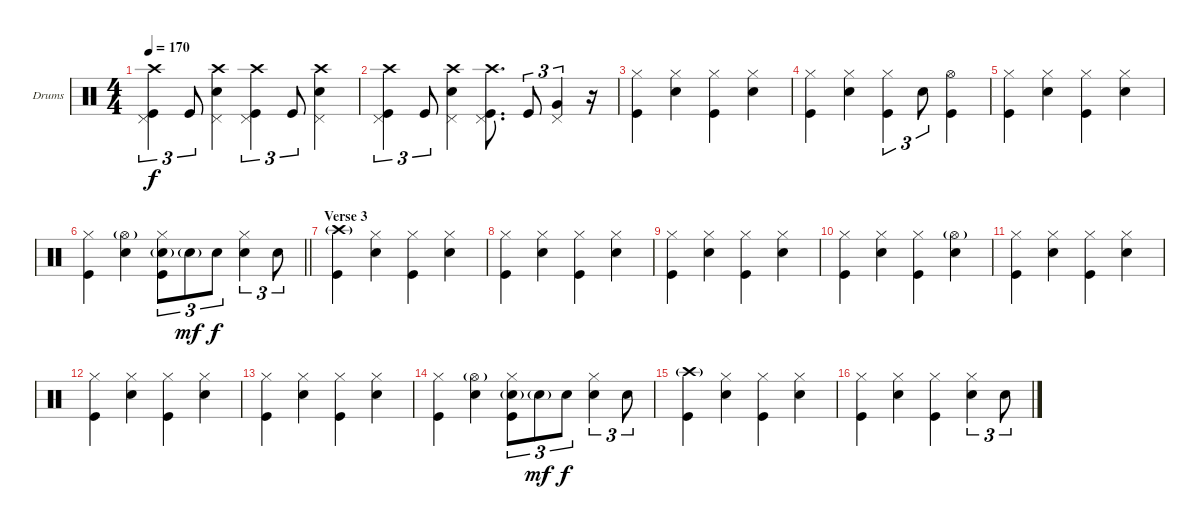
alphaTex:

\bracketExtendMode groupsimilarinstruments
\firstSystemTrackNameOrientation horizontal
\otherSystemsTrackNameOrientation horizontal
\track ("Dave Grohl [Drumms]" "Drums") {instrument percussion}
\staff {score}
\articulation defaults
\ts (4 4)
\tempo 170
\clef neutral
\ks c
("Crash high (hit)" "Pedal Hi-Hat (hit)" "Kick (hit)").4{tu (3 2) dy f} "Kick (hit)".8{tu (3 2)} ("Crash high (hit)" "Pedal Hi-Hat (hit)" "Snare (hit) 2").4 ("Crash high (hit)" "Pedal Hi-Hat (hit)" "Kick (hit)").4{tu (3 2)} "Kick (hit)".8{tu (3 2)} ("Crash high (hit)" "Pedal Hi-Hat (hit)" "Snare (hit) 2").4 |
("Crash high (hit)" "Pedal Hi-Hat (hit)" "Kick (hit)").4{tu (3 2)} "Kick (hit)".8{tu (3 2)} ("Crash high (hit)" "Pedal Hi-Hat (hit)" "Snare (hit) 2").4 ("Crash high (hit)" "Pedal Hi-Hat (hit)" "Kick (hit)").8{d} "Kick (hit)".8{tu (3 2)} ("Pedal Hi-Hat (hit)" "Very Low Tom (hit)").4{tu (3 2)} r.16 |
("Hi-Hat (closed)" "Kick (hit)").4 ("Hi-Hat (closed)" "Snare (hit) 2").4 ("Hi-Hat (closed)" "Kick (hit)").4 ("Hi-Hat (closed)" "Snare (hit) 2").4 |
("Hi-Hat (closed)" "Kick (hit)").4 ("Hi-Hat (closed)" "Snare (hit) 2").4 ("Hi-Hat (closed)" "Kick (hit)").4{tu (3 2)} "Snare (hit) 2".8{tu (3 2)} ("Hi-Hat (open)" "Kick (hit)").4 |
("Hi-Hat (closed)" "Kick (hit)").4 ("Hi-Hat (closed)" "Snare (hit) 2").4 ("Hi-Hat (closed)" "Kick (hit)").4 ("Hi-Hat (closed)" "Snare (hit) 2").4 |
\barLineRight lightlight
("Hi-Hat (closed)" "Kick (hit)").4 ("Hi-Hat (open)"{g} "Snare (hit) 2").4 ("Hi-Hat (closed)" "Snare (hit) 2"{g} "Kick (hit)").8{tu (3 2)} "Snare (hit) 2"{g}.8{tu (3 2) dy mf} "Snare (hit) 2".8{tu (3 2) dy f} ("Hi-Hat (closed)" "Snare (hit) 2").4{tu (3 2)} "Snare (hit) 2".8{tu (3 2)} |
\section ("" "Verse 3")
("Crash high (hit)"{g} "Kick (hit)").4 ("Hi-Hat (closed)" "Snare (hit) 2").4 ("Hi-Hat (closed)" "Kick (hit)").4 ("Hi-Hat (closed)" "Snare (hit) 2").4 |
("Hi-Hat (closed)" "Kick (hit)").4 ("Hi-Hat (closed)" "Snare (hit) 2").4 ("Hi-Hat (closed)" "Kick (hit)").4 ("Hi-Hat (closed)" "Snare (hit) 2").4 |
("Hi-Hat (closed)" "Kick (hit)").4 ("Hi-Hat (closed)" "Snare (hit) 2").4 ("Hi-Hat (closed)" "Kick (hit)").4 ("Hi-Hat (closed)" "Snare (hit) 2").4 |
("Hi-Hat (closed)" "Kick (hit)").4 ("Hi-Hat (closed)" "Snare (hit) 2").4 ("Hi-Hat (closed)" "Kick (hit)").4 ("Hi-Hat (open)"{g} "Snare (hit) 2").4 |
("Hi-Hat (closed)" "Kick (hit)").4 ("Hi-Hat (closed)" "Snare (hit) 2").4 ("Hi-Hat (closed)" "Kick (hit)").4 ("Hi-Hat (closed)" "Snare (hit) 2").4 |
("Hi-Hat (closed)" "Kick (hit)").4 ("Hi-Hat (closed)" "Snare (hit) 2").4 ("Hi-Hat (closed)" "Kick (hit)").4 ("Hi-Hat (closed)" "Snare (hit) 2").4 |
("Hi-Hat (closed)" "Kick (hit)").4 ("Hi-Hat (closed)" "Snare (hit) 2").4 ("Hi-Hat (closed)" "Kick (hit)").4 ("Hi-Hat (closed)" "Snare (hit) 2").4 |
("Hi-Hat (closed)" "Kick (hit)").4 ("Hi-Hat (open)"{g} "Snare (hit) 2").4 ("Hi-Hat (closed)" "Snare (hit) 2"{g} "Kick (hit)").8{tu (3 2)} "Snare (hit) 2"{g}.8{tu (3 2) dy mf} "Snare (hit) 2".8{tu (3 2) dy f} ("Hi-Hat (closed)" "Snare (hit) 2").4{tu (3 2)} "Snare (hit) 2".8{tu (3 2)} |
("Crash high (hit)"{g} "Kick (hit)").4 ("Hi-Hat (closed)" "Snare (hit) 2").4 ("Hi-Hat (closed)" "Kick (hit)").4 ("Hi-Hat (closed)" "Snare (hit) 2").4 |
("Hi-Hat (closed)" "Kick (hit)").4 ("Hi-Hat (closed)" "Snare (hit) 2").4 ("Hi-Hat (closed)" "Kick (hit)").4 ("Hi-Hat (closed)" "Snare (hit) 2").4{tu (3 2)} "Snare (hit) 2".8{tu (3 2)}
